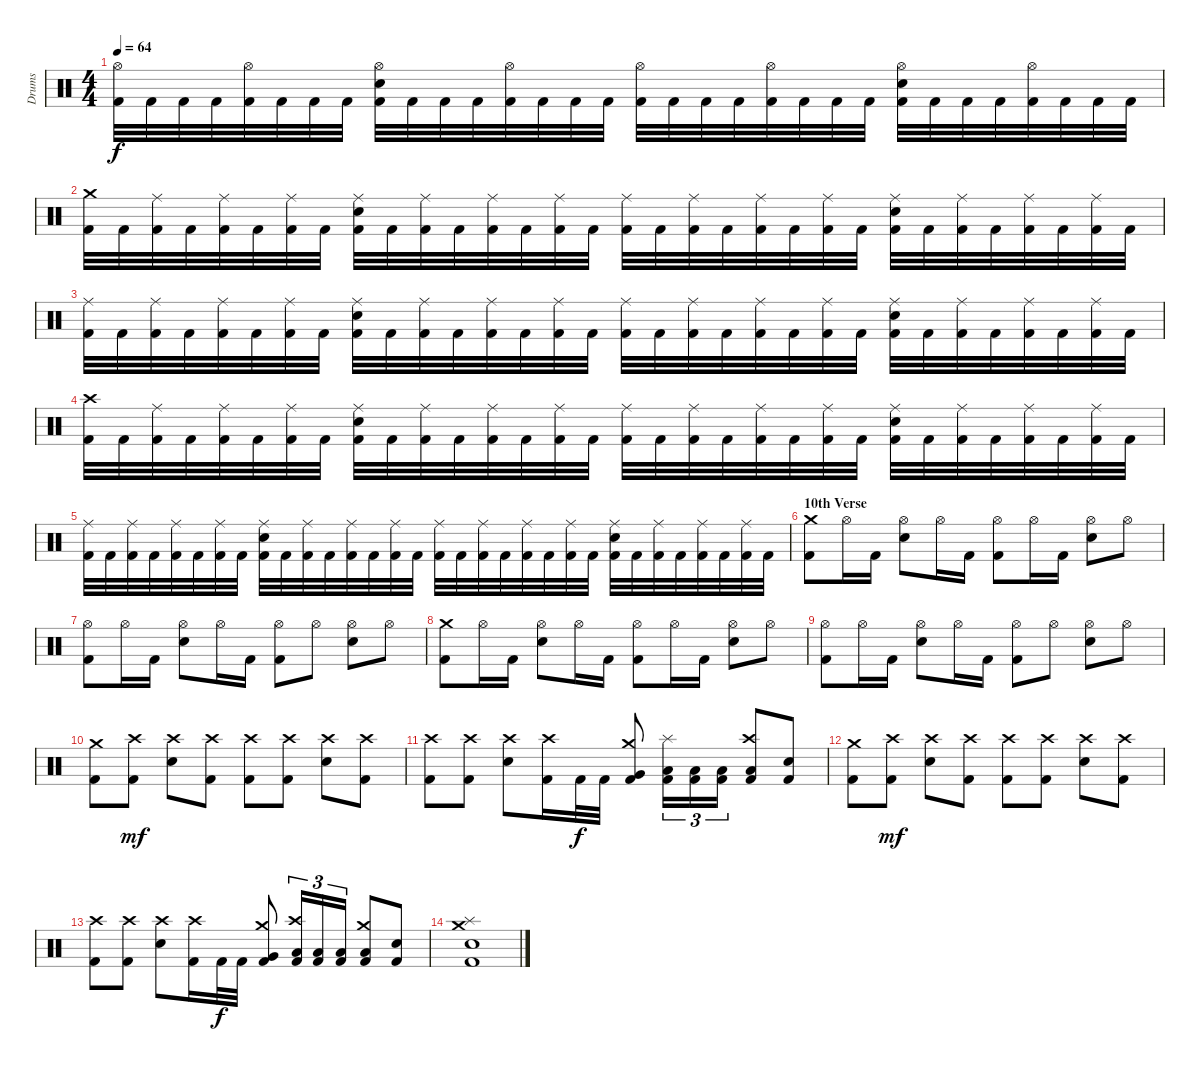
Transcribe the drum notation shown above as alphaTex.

\track ("Drums" "Drums") {instrument percussion}
\staff {score}
\articulation defaults
\ts (4 4)
\tempo 64
\clef neutral
\ks c
("Kick (hit) 2" "Hi-Hat (open)").32{dy f} "Kick (hit) 2".32 "Kick (hit) 2".32 "Kick (hit) 2".32 ("Kick (hit) 2" "Hi-Hat (open)").32 "Kick (hit) 2".32 "Kick (hit) 2".32 "Kick (hit) 2".32 ("Kick (hit) 2" "Electric Snare (hit)" "Hi-Hat (open)").32 "Kick (hit) 2".32 "Kick (hit) 2".32 "Kick (hit) 2".32 ("Kick (hit) 2" "Hi-Hat (open)").32 "Kick (hit) 2".32 "Kick (hit) 2".32 "Kick (hit) 2".32 ("Kick (hit) 2" "Hi-Hat (open)").32 "Kick (hit) 2".32 "Kick (hit) 2".32 "Kick (hit) 2".32 ("Kick (hit) 2" "Hi-Hat (open)").32 "Kick (hit) 2".32 "Kick (hit) 2".32 "Kick (hit) 2".32 ("Kick (hit) 2" "Electric Snare (hit)" "Hi-Hat (open)").32 "Kick (hit) 2".32 "Kick (hit) 2".32 "Kick (hit) 2".32 ("Kick (hit) 2" "Hi-Hat (open)").32 "Kick (hit) 2".32 "Kick (hit) 2".32 "Kick (hit) 2".32 |
("Kick (hit) 2" "Crash medium (hit)").32 "Kick (hit) 2".32 ("Kick (hit) 2" "Ride (middle)").32 "Kick (hit) 2".32 ("Kick (hit) 2" "Ride (middle)").32 "Kick (hit) 2".32 ("Kick (hit) 2" "Ride (middle)").32 "Kick (hit) 2".32 ("Kick (hit) 2" "Electric Snare (hit)" "Ride (middle)").32 "Kick (hit) 2".32 ("Kick (hit) 2" "Ride (middle)").32 "Kick (hit) 2".32 ("Kick (hit) 2" "Ride (middle)").32 "Kick (hit) 2".32 ("Kick (hit) 2" "Ride (middle)").32 "Kick (hit) 2".32 ("Kick (hit) 2" "Ride (middle)").32 "Kick (hit) 2".32 ("Kick (hit) 2" "Ride (middle)").32 "Kick (hit) 2".32 ("Kick (hit) 2" "Ride (middle)").32 "Kick (hit) 2".32 ("Kick (hit) 2" "Ride (middle)").32 "Kick (hit) 2".32 ("Kick (hit) 2" "Electric Snare (hit)" "Ride (middle)").32 "Kick (hit) 2".32 ("Kick (hit) 2" "Ride (middle)").32 "Kick (hit) 2".32 ("Kick (hit) 2" "Ride (middle)").32 "Kick (hit) 2".32 ("Kick (hit) 2" "Ride (middle)").32 "Kick (hit) 2".32 |
("Kick (hit) 2" "Ride (middle)").32 "Kick (hit) 2".32 ("Kick (hit) 2" "Ride (middle)").32 "Kick (hit) 2".32 ("Kick (hit) 2" "Ride (middle)").32 "Kick (hit) 2".32 ("Kick (hit) 2" "Ride (middle)").32 "Kick (hit) 2".32 ("Kick (hit) 2" "Electric Snare (hit)" "Ride (middle)").32 "Kick (hit) 2".32 ("Kick (hit) 2" "Ride (middle)").32 "Kick (hit) 2".32 ("Kick (hit) 2" "Ride (middle)").32 "Kick (hit) 2".32 ("Kick (hit) 2" "Ride (middle)").32 "Kick (hit) 2".32 ("Kick (hit) 2" "Ride (middle)").32 "Kick (hit) 2".32 ("Kick (hit) 2" "Ride (middle)").32 "Kick (hit) 2".32 ("Kick (hit) 2" "Ride (middle)").32 "Kick (hit) 2".32 ("Kick (hit) 2" "Ride (middle)").32 "Kick (hit) 2".32 ("Kick (hit) 2" "Electric Snare (hit)" "Ride (middle)").32 "Kick (hit) 2".32 ("Kick (hit) 2" "Ride (middle)").32 "Kick (hit) 2".32 ("Kick (hit) 2" "Ride (middle)").32 "Kick (hit) 2".32 ("Kick (hit) 2" "Ride (middle)").32 "Kick (hit) 2".32 |
("Kick (hit) 2" "Crash high (hit)").32 "Kick (hit) 2".32 ("Kick (hit) 2" "Ride (middle)").32 "Kick (hit) 2".32 ("Kick (hit) 2" "Ride (middle)").32 "Kick (hit) 2".32 ("Kick (hit) 2" "Ride (middle)").32 "Kick (hit) 2".32 ("Kick (hit) 2" "Electric Snare (hit)" "Ride (middle)").32 "Kick (hit) 2".32 ("Kick (hit) 2" "Ride (middle)").32 "Kick (hit) 2".32 ("Kick (hit) 2" "Ride (middle)").32 "Kick (hit) 2".32 ("Kick (hit) 2" "Ride (middle)").32 "Kick (hit) 2".32 ("Kick (hit) 2" "Ride (middle)").32 "Kick (hit) 2".32 ("Kick (hit) 2" "Ride (middle)").32 "Kick (hit) 2".32 ("Kick (hit) 2" "Ride (middle)").32 "Kick (hit) 2".32 ("Kick (hit) 2" "Ride (middle)").32 "Kick (hit) 2".32 ("Kick (hit) 2" "Electric Snare (hit)" "Ride (middle)").32 "Kick (hit) 2".32 ("Kick (hit) 2" "Ride (middle)").32 "Kick (hit) 2".32 ("Kick (hit) 2" "Ride (middle)").32 "Kick (hit) 2".32 ("Kick (hit) 2" "Ride (middle)").32 "Kick (hit) 2".32 |
("Kick (hit) 2" "Ride (middle)").32 "Kick (hit) 2".32 ("Kick (hit) 2" "Ride (middle)").32 "Kick (hit) 2".32 ("Kick (hit) 2" "Ride (middle)").32 "Kick (hit) 2".32 ("Kick (hit) 2" "Ride (middle)").32 "Kick (hit) 2".32 ("Kick (hit) 2" "Electric Snare (hit)" "Ride (middle)").32 "Kick (hit) 2".32 ("Kick (hit) 2" "Ride (middle)").32 "Kick (hit) 2".32 ("Kick (hit) 2" "Ride (middle)").32 "Kick (hit) 2".32 ("Kick (hit) 2" "Ride (middle)").32 "Kick (hit) 2".32 ("Kick (hit) 2" "Ride (middle)").32 "Kick (hit) 2".32 ("Kick (hit) 2" "Ride (middle)").32 "Kick (hit) 2".32 ("Kick (hit) 2" "Ride (middle)").32 "Kick (hit) 2".32 ("Kick (hit) 2" "Ride (middle)").32 "Kick (hit) 2".32 ("Kick (hit) 2" "Electric Snare (hit)" "Ride (middle)").32 "Kick (hit) 2".32 ("Kick (hit) 2" "Ride (middle)").32 "Kick (hit) 2".32 ("Kick (hit) 2" "Ride (middle)").32 "Kick (hit) 2".32 ("Kick (hit) 2" "Ride (middle)").32 "Kick (hit) 2".32 |
\section ("" "10th Verse")
("Kick (hit) 2" "Crash medium (hit)").8 "Hi-Hat (open)".16 "Kick (hit) 2".16 ("Electric Snare (hit)" "Hi-Hat (open)").8 "Hi-Hat (open)".16 "Kick (hit) 2".16 ("Kick (hit) 2" "Hi-Hat (open)").8 "Hi-Hat (open)".16 "Kick (hit) 2".16 ("Electric Snare (hit)" "Hi-Hat (open)").8 "Hi-Hat (open)".8 |
("Kick (hit) 2" "Hi-Hat (open)").8 "Hi-Hat (open)".16 "Kick (hit) 2".16 ("Electric Snare (hit)" "Hi-Hat (open)").8 "Hi-Hat (open)".16 "Kick (hit) 2".16 ("Kick (hit) 2" "Hi-Hat (open)").8 "Hi-Hat (open)".8 ("Electric Snare (hit)" "Hi-Hat (open)").8 "Hi-Hat (open)".8 |
("Kick (hit) 2" "Crash medium (hit)").8 "Hi-Hat (open)".16 "Kick (hit) 2".16 ("Electric Snare (hit)" "Hi-Hat (open)").8 "Hi-Hat (open)".16 "Kick (hit) 2".16 ("Kick (hit) 2" "Hi-Hat (open)").8 "Hi-Hat (open)".16 "Kick (hit) 2".16 ("Electric Snare (hit)" "Hi-Hat (open)").8 "Hi-Hat (open)".8 |
("Kick (hit) 2" "Hi-Hat (open)").8 "Hi-Hat (open)".16 "Kick (hit) 2".16 ("Electric Snare (hit)" "Hi-Hat (open)").8 "Hi-Hat (open)".16 "Kick (hit) 2".16 ("Kick (hit) 2" "Hi-Hat (open)").8 "Hi-Hat (open)".8 ("Electric Snare (hit)" "Hi-Hat (open)").8 "Hi-Hat (open)".8 |
("Kick (hit) 2" "Crash medium (hit)").8 ("Kick (hit) 2" "Crash high (hit)").8{dy mf} ("Electric Snare (hit)" "Crash high (hit)").8 ("Kick (hit) 2" "Crash high (hit)").8 ("Kick (hit) 2" "Crash high (hit)").8 ("Kick (hit) 2" "Crash high (hit)").8 ("Electric Snare (hit)" "Crash high (hit)").8 ("Kick (hit) 2" "Crash high (hit)").8 |
("Kick (hit) 2" "Crash high (hit)").8 ("Kick (hit) 2" "Crash high (hit)").8 ("Electric Snare (hit)" "Crash high (hit)").8 ("Kick (hit) 2" "Crash high (hit)").16 "Kick (hit) 2".32{dy f} "Kick (hit) 2".32 ("Kick (hit) 2" "Very Low Tom (hit)" "Crash medium (hit)").8 ("Kick (hit) 2" "Low Floor Tom (hit)" "Splash (hit)").16{tu (3 2)} ("Kick (hit) 2" "Low Floor Tom (hit)").16{tu (3 2)} ("Kick (hit) 2" "Low Floor Tom (hit)").16{tu (3 2)} ("Kick (hit) 2" "Low Floor Tom (hit)" "Crash high (hit)").8 ("Kick (hit) 2" "Electric Snare (hit)").8 |
("Kick (hit) 2" "Crash medium (hit)").8 ("Kick (hit) 2" "Crash high (hit)").8{dy mf} ("Electric Snare (hit)" "Crash high (hit)").8 ("Kick (hit) 2" "Crash high (hit)").8 ("Kick (hit) 2" "Crash high (hit)").8 ("Kick (hit) 2" "Crash high (hit)").8 ("Electric Snare (hit)" "Crash high (hit)").8 ("Kick (hit) 2" "Crash high (hit)").8 |
("Kick (hit) 2" "Crash high (hit)").8 ("Kick (hit) 2" "Crash high (hit)").8 ("Electric Snare (hit)" "Crash high (hit)").8 ("Kick (hit) 2" "Crash high (hit)").16 "Kick (hit) 2".32{dy f} "Kick (hit) 2".32 ("Kick (hit) 2" "Very Low Tom (hit)" "Crash medium (hit)").8 ("Kick (hit) 2" "Low Floor Tom (hit)" "Crash high (hit)").16{tu (3 2)} ("Kick (hit) 2" "Low Floor Tom (hit)").16{tu (3 2)} ("Kick (hit) 2" "Low Floor Tom (hit)").16{tu (3 2)} ("Kick (hit) 2" "Low Floor Tom (hit)" "Crash medium (hit)").8 ("Kick (hit) 2" "Electric Snare (hit)").8 |
("Kick (hit) 2" "Electric Snare (hit)" "Splash (hit)" "Crash medium (hit)").1
